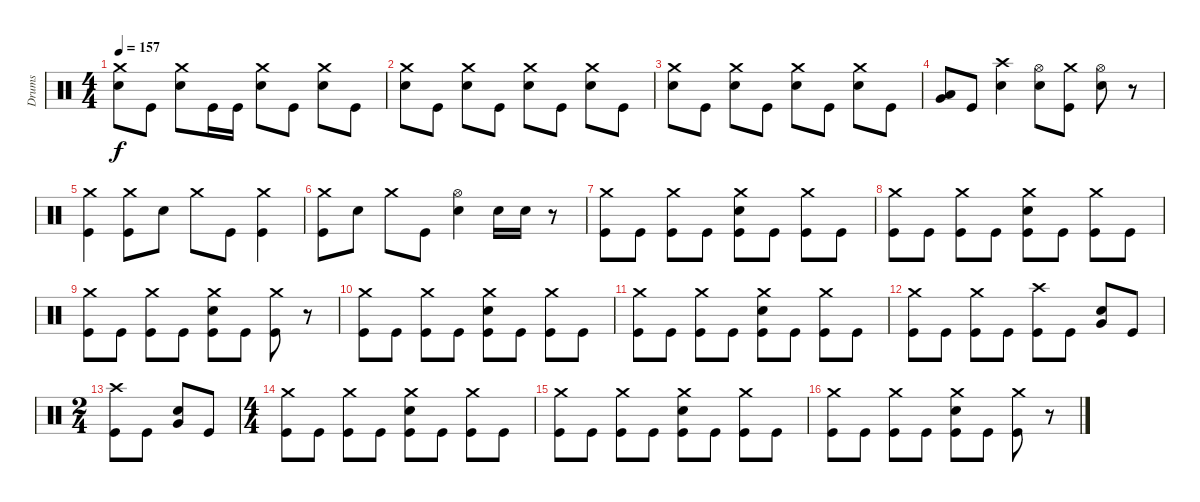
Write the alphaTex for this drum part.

\track ("Drums" "Drums") {instrument percussion}
\staff {score}
\articulation defaults
\ts (4 4)
\tempo 157
\clef neutral
\ks c
("Crash medium (hit)" "Electric Snare (hit)").8{dy f} "Kick (hit)".8 ("Crash medium (hit)" "Electric Snare (hit)").8 "Kick (hit)".16 "Kick (hit)".16 ("Crash medium (hit)" "Electric Snare (hit)").8 "Kick (hit)".8 ("Crash medium (hit)" "Electric Snare (hit)").8 "Kick (hit)".8 |
("Crash medium (hit)" "Electric Snare (hit)").8 "Kick (hit)".8 ("Crash medium (hit)" "Electric Snare (hit)").8 "Kick (hit)".8 ("Crash medium (hit)" "Electric Snare (hit)").8 "Kick (hit)".8 ("Crash medium (hit)" "Electric Snare (hit)").8 "Kick (hit)".8 |
("Crash medium (hit)" "Electric Snare (hit)").8 "Kick (hit)".8 ("Crash medium (hit)" "Electric Snare (hit)").8 "Kick (hit)".8 ("Crash medium (hit)" "Electric Snare (hit)").8 "Kick (hit)".8 ("Crash medium (hit)" "Electric Snare (hit)").8 "Kick (hit)".8 |
("Low Tom (hit)" "Very Low Tom (hit)").8 "Kick (hit)".8 ("Crash high (hit)" "Electric Snare (hit)").4 ("Hi-Hat (open)" "Electric Snare (hit)").8 ("Crash medium (hit)" "Kick (hit)").8 ("Hi-Hat (open)" "Electric Snare (hit)").8 r.8 |
("Crash medium (hit)" "Kick (hit)").4 ("Crash medium (hit)" "Kick (hit)").8 "Electric Snare (hit)".8 "Crash medium (hit)".8 "Kick (hit)".8 ("Crash medium (hit)" "Kick (hit)").4 |
("Crash medium (hit)" "Kick (hit)").8 "Electric Snare (hit)".8 "Crash medium (hit)".8 "Kick (hit)".8 ("Hi-Hat (open)" "Electric Snare (hit)").4 "Electric Snare (hit)".16 "Electric Snare (hit)".16 r.8 |
("Crash medium (hit)" "Kick (hit)").8 "Kick (hit)".8 ("Crash medium (hit)" "Kick (hit)").8 "Kick (hit)".8 ("Crash medium (hit)" "Electric Snare (hit)" "Kick (hit)").8 "Kick (hit)".8 ("Crash medium (hit)" "Kick (hit)").8 "Kick (hit)".8 |
("Crash medium (hit)" "Kick (hit)").8 "Kick (hit)".8 ("Crash medium (hit)" "Kick (hit)").8 "Kick (hit)".8 ("Crash medium (hit)" "Electric Snare (hit)" "Kick (hit)").8 "Kick (hit)".8 ("Crash medium (hit)" "Kick (hit)").8 "Kick (hit)".8 |
("Crash medium (hit)" "Kick (hit)").8 "Kick (hit)".8 ("Crash medium (hit)" "Kick (hit)").8 "Kick (hit)".8 ("Crash medium (hit)" "Electric Snare (hit)" "Kick (hit)").8 "Kick (hit)".8 ("Crash medium (hit)" "Kick (hit)").8 r.8 |
("Crash medium (hit)" "Kick (hit)").8 "Kick (hit)".8 ("Crash medium (hit)" "Kick (hit)").8 "Kick (hit)".8 ("Crash medium (hit)" "Electric Snare (hit)" "Kick (hit)").8 "Kick (hit)".8 ("Crash medium (hit)" "Kick (hit)").8 "Kick (hit)".8 |
("Crash medium (hit)" "Kick (hit)").8 "Kick (hit)".8 ("Crash medium (hit)" "Kick (hit)").8 "Kick (hit)".8 ("Crash medium (hit)" "Electric Snare (hit)" "Kick (hit)").8 "Kick (hit)".8 ("Crash medium (hit)" "Kick (hit)").8 "Kick (hit)".8 |
("Crash medium (hit)" "Kick (hit)").8 "Kick (hit)".8 ("Crash medium (hit)" "Kick (hit)").8 "Kick (hit)".8 ("Crash high (hit)" "Kick (hit)").8 "Kick (hit)".8 ("Very Low Tom (hit)" "Electric Snare (hit)").8 "Kick (hit)".8 |
\ts (2 4)
("Crash high (hit)" "Kick (hit)").8 "Kick (hit)".8 ("Very Low Tom (hit)" "Electric Snare (hit)").8 "Kick (hit)".8 |
\ts (4 4)
("Crash medium (hit)" "Kick (hit)").8 "Kick (hit)".8 ("Crash medium (hit)" "Kick (hit)").8 "Kick (hit)".8 ("Crash medium (hit)" "Electric Snare (hit)" "Kick (hit)").8 "Kick (hit)".8 ("Crash medium (hit)" "Kick (hit)").8 "Kick (hit)".8 |
("Crash medium (hit)" "Kick (hit)").8 "Kick (hit)".8 ("Crash medium (hit)" "Kick (hit)").8 "Kick (hit)".8 ("Crash medium (hit)" "Electric Snare (hit)" "Kick (hit)").8 "Kick (hit)".8 ("Crash medium (hit)" "Kick (hit)").8 "Kick (hit)".8 |
("Crash medium (hit)" "Kick (hit)").8 "Kick (hit)".8 ("Crash medium (hit)" "Kick (hit)").8 "Kick (hit)".8 ("Crash medium (hit)" "Electric Snare (hit)" "Kick (hit)").8 "Kick (hit)".8 ("Crash medium (hit)" "Kick (hit)").8 r.8
